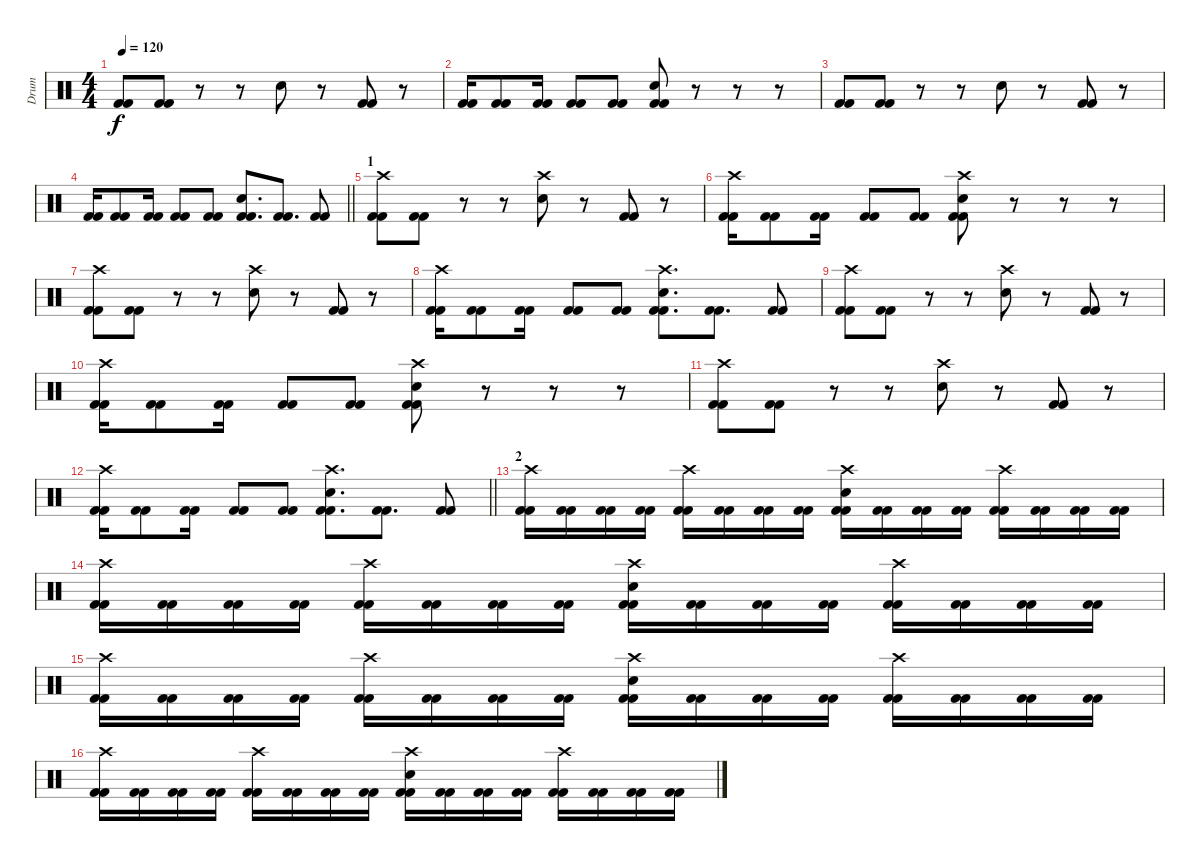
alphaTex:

\track ("Drum" "Drum") {instrument percussion}
\staff {score}
\articulation defaults
\ts (4 4)
\tempo 120
\clef neutral
\ks c
("Kick (hit) 2" "Kick (hit) 2").8{dy f} ("Kick (hit) 2" "Kick (hit) 2").8 r.8 r.8 "Electric Snare (hit)".8 r.8 ("Kick (hit) 2" "Kick (hit) 2").8 r.8 |
("Kick (hit) 2" "Kick (hit) 2").16 ("Kick (hit) 2" "Kick (hit) 2").8 ("Kick (hit) 2" "Kick (hit) 2").16 ("Kick (hit) 2" "Kick (hit) 2").8 ("Kick (hit) 2" "Kick (hit) 2").8 ("Electric Snare (hit)" "Kick (hit) 2" "Kick (hit) 2").8 r.8 r.8 r.8 |
("Kick (hit) 2" "Kick (hit) 2").8 ("Kick (hit) 2" "Kick (hit) 2").8 r.8 r.8 "Electric Snare (hit)".8 r.8 ("Kick (hit) 2" "Kick (hit) 2").8 r.8 |
\barLineRight lightlight
("Kick (hit) 2" "Kick (hit) 2").16 ("Kick (hit) 2" "Kick (hit) 2").8 ("Kick (hit) 2" "Kick (hit) 2").16 ("Kick (hit) 2" "Kick (hit) 2").8 ("Kick (hit) 2" "Kick (hit) 2").8 ("Electric Snare (hit)" "Kick (hit) 2" "Kick (hit) 2").8{d} ("Kick (hit) 2" "Kick (hit) 2").8{d} ("Kick (hit) 2" "Kick (hit) 2").8 |
\section ("" "1")
("Crash high (hit)" "Kick (hit) 2" "Kick (hit) 2").8 ("Kick (hit) 2" "Kick (hit) 2").8 r.8 r.8 ("Crash high (hit)" "Electric Snare (hit)").8 r.8 ("Kick (hit) 2" "Kick (hit) 2").8 r.8 |
("Crash high (hit)" "Kick (hit) 2" "Kick (hit) 2").16 ("Kick (hit) 2" "Kick (hit) 2").8 ("Kick (hit) 2" "Kick (hit) 2").16 ("Kick (hit) 2" "Kick (hit) 2").8 ("Kick (hit) 2" "Kick (hit) 2").8 ("Crash high (hit)" "Electric Snare (hit)" "Kick (hit) 2" "Kick (hit) 2").8 r.8 r.8 r.8 |
("Crash high (hit)" "Kick (hit) 2" "Kick (hit) 2").8 ("Kick (hit) 2" "Kick (hit) 2").8 r.8 r.8 ("Crash high (hit)" "Electric Snare (hit)").8 r.8 ("Kick (hit) 2" "Kick (hit) 2").8 r.8 |
("Crash high (hit)" "Kick (hit) 2" "Kick (hit) 2").16 ("Kick (hit) 2" "Kick (hit) 2").8 ("Kick (hit) 2" "Kick (hit) 2").16 ("Kick (hit) 2" "Kick (hit) 2").8 ("Kick (hit) 2" "Kick (hit) 2").8 ("Crash high (hit)" "Electric Snare (hit)" "Kick (hit) 2" "Kick (hit) 2").8{d} ("Kick (hit) 2" "Kick (hit) 2").8{d} ("Kick (hit) 2" "Kick (hit) 2").8 |
("Crash high (hit)" "Kick (hit) 2" "Kick (hit) 2").8 ("Kick (hit) 2" "Kick (hit) 2").8 r.8 r.8 ("Crash high (hit)" "Electric Snare (hit)").8 r.8 ("Kick (hit) 2" "Kick (hit) 2").8 r.8 |
("Crash high (hit)" "Kick (hit) 2" "Kick (hit) 2").16 ("Kick (hit) 2" "Kick (hit) 2").8 ("Kick (hit) 2" "Kick (hit) 2").16 ("Kick (hit) 2" "Kick (hit) 2").8 ("Kick (hit) 2" "Kick (hit) 2").8 ("Crash high (hit)" "Electric Snare (hit)" "Kick (hit) 2" "Kick (hit) 2").8 r.8 r.8 r.8 |
("Crash high (hit)" "Kick (hit) 2" "Kick (hit) 2").8 ("Kick (hit) 2" "Kick (hit) 2").8 r.8 r.8 ("Crash high (hit)" "Electric Snare (hit)").8 r.8 ("Kick (hit) 2" "Kick (hit) 2").8 r.8 |
\barLineRight lightlight
("Crash high (hit)" "Kick (hit) 2" "Kick (hit) 2").16 ("Kick (hit) 2" "Kick (hit) 2").8 ("Kick (hit) 2" "Kick (hit) 2").16 ("Kick (hit) 2" "Kick (hit) 2").8 ("Kick (hit) 2" "Kick (hit) 2").8 ("Crash high (hit)" "Electric Snare (hit)" "Kick (hit) 2" "Kick (hit) 2").8{d} ("Kick (hit) 2" "Kick (hit) 2").8{d} ("Kick (hit) 2" "Kick (hit) 2").8 |
\section ("" "2")
("Crash high (hit)" "Kick (hit) 2" "Kick (hit) 2").16 ("Kick (hit) 2" "Kick (hit) 2").16 ("Kick (hit) 2" "Kick (hit) 2").16 ("Kick (hit) 2" "Kick (hit) 2").16 ("Crash high (hit)" "Kick (hit) 2" "Kick (hit) 2").16 ("Kick (hit) 2" "Kick (hit) 2").16 ("Kick (hit) 2" "Kick (hit) 2").16 ("Kick (hit) 2" "Kick (hit) 2").16 ("Crash high (hit)" "Electric Snare (hit)" "Kick (hit) 2" "Kick (hit) 2").16 ("Kick (hit) 2" "Kick (hit) 2").16 ("Kick (hit) 2" "Kick (hit) 2").16 ("Kick (hit) 2" "Kick (hit) 2").16 ("Crash high (hit)" "Kick (hit) 2" "Kick (hit) 2").16 ("Kick (hit) 2" "Kick (hit) 2").16 ("Kick (hit) 2" "Kick (hit) 2").16 ("Kick (hit) 2" "Kick (hit) 2").16 |
("Crash high (hit)" "Kick (hit) 2" "Kick (hit) 2").16 ("Kick (hit) 2" "Kick (hit) 2").16 ("Kick (hit) 2" "Kick (hit) 2").16 ("Kick (hit) 2" "Kick (hit) 2").16 ("Crash high (hit)" "Kick (hit) 2" "Kick (hit) 2").16 ("Kick (hit) 2" "Kick (hit) 2").16 ("Kick (hit) 2" "Kick (hit) 2").16 ("Kick (hit) 2" "Kick (hit) 2").16 ("Crash high (hit)" "Electric Snare (hit)" "Kick (hit) 2" "Kick (hit) 2").16 ("Kick (hit) 2" "Kick (hit) 2").16 ("Kick (hit) 2" "Kick (hit) 2").16 ("Kick (hit) 2" "Kick (hit) 2").16 ("Crash high (hit)" "Kick (hit) 2" "Kick (hit) 2").16 ("Kick (hit) 2" "Kick (hit) 2").16 ("Kick (hit) 2" "Kick (hit) 2").16 ("Kick (hit) 2" "Kick (hit) 2").16 |
("Crash high (hit)" "Kick (hit) 2" "Kick (hit) 2").16 ("Kick (hit) 2" "Kick (hit) 2").16 ("Kick (hit) 2" "Kick (hit) 2").16 ("Kick (hit) 2" "Kick (hit) 2").16 ("Crash high (hit)" "Kick (hit) 2" "Kick (hit) 2").16 ("Kick (hit) 2" "Kick (hit) 2").16 ("Kick (hit) 2" "Kick (hit) 2").16 ("Kick (hit) 2" "Kick (hit) 2").16 ("Crash high (hit)" "Electric Snare (hit)" "Kick (hit) 2" "Kick (hit) 2").16 ("Kick (hit) 2" "Kick (hit) 2").16 ("Kick (hit) 2" "Kick (hit) 2").16 ("Kick (hit) 2" "Kick (hit) 2").16 ("Crash high (hit)" "Kick (hit) 2" "Kick (hit) 2").16 ("Kick (hit) 2" "Kick (hit) 2").16 ("Kick (hit) 2" "Kick (hit) 2").16 ("Kick (hit) 2" "Kick (hit) 2").16 |
("Crash high (hit)" "Kick (hit) 2" "Kick (hit) 2").16 ("Kick (hit) 2" "Kick (hit) 2").16 ("Kick (hit) 2" "Kick (hit) 2").16 ("Kick (hit) 2" "Kick (hit) 2").16 ("Crash high (hit)" "Kick (hit) 2" "Kick (hit) 2").16 ("Kick (hit) 2" "Kick (hit) 2").16 ("Kick (hit) 2" "Kick (hit) 2").16 ("Kick (hit) 2" "Kick (hit) 2").16 ("Crash high (hit)" "Electric Snare (hit)" "Kick (hit) 2" "Kick (hit) 2").16 ("Kick (hit) 2" "Kick (hit) 2").16 ("Kick (hit) 2" "Kick (hit) 2").16 ("Kick (hit) 2" "Kick (hit) 2").16 ("Crash high (hit)" "Kick (hit) 2" "Kick (hit) 2").16 ("Kick (hit) 2" "Kick (hit) 2").16 ("Kick (hit) 2" "Kick (hit) 2").16 ("Kick (hit) 2" "Kick (hit) 2").16
